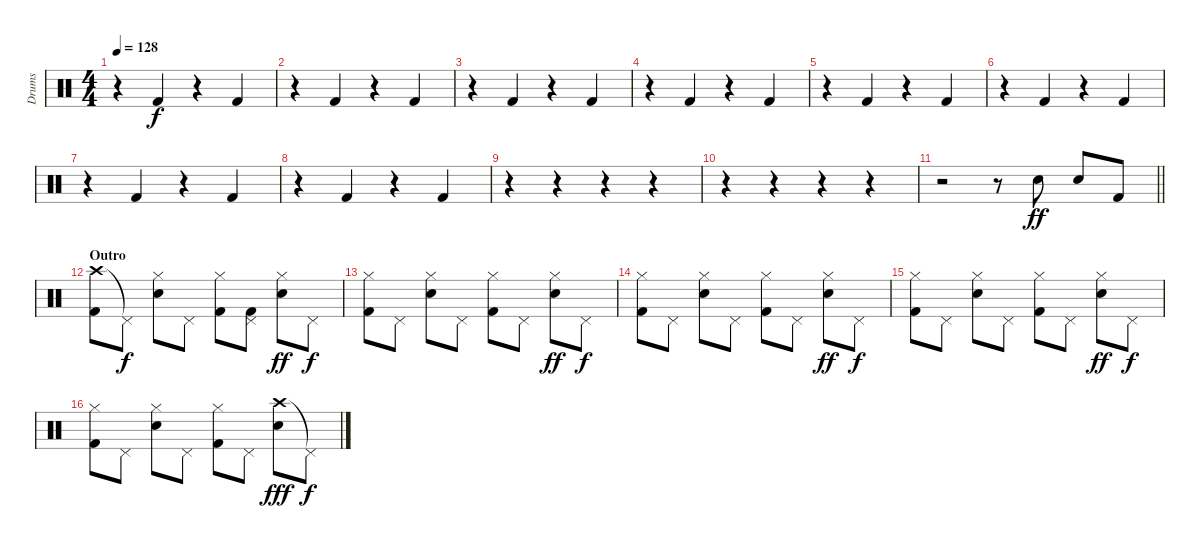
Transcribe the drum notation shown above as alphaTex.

\track ("Drums" "Drums") {instrument percussion}
\staff {score}
\articulation defaults
\ts (4 4)
\tempo 128
\clef neutral
\ks c
r.4{dy f} "Kick (hit) 2".4 r.4 "Kick (hit) 2".4 |
r.4 "Kick (hit) 2".4 r.4 "Kick (hit) 2".4 |
r.4 "Kick (hit) 2".4 r.4 "Kick (hit) 2".4 |
r.4 "Kick (hit) 2".4 r.4 "Kick (hit) 2".4 |
r.4 "Kick (hit) 2".4 r.4 "Kick (hit) 2".4 |
r.4 "Kick (hit) 2".4 r.4 "Kick (hit) 2".4 |
r.4 "Kick (hit) 2".4 r.4 "Kick (hit) 2".4 |
r.4 "Kick (hit) 2".4 r.4 "Kick (hit) 2".4 |
r.4 r.4 r.4 r.4 |
r.4 r.4 r.4 r.4 |
\barLineRight lightlight
r.2 r.8 "Snare (hit) 2".8{dy ff} "Snare (hit) 2".8 "Kick (hit) 2".8 |
\section ("" "Outro")
("Crash high (hit)" "Kick (hit) 2").8 "Pedal Hi-Hat (hit)"{t}.8{dy f} ("Hi-Hat (closed)" "Snare (hit) 2").8 "Pedal Hi-Hat (hit)".8 ("Hi-Hat (closed)" "Kick (hit) 2").8 ("Pedal Hi-Hat (hit)" "Kick (hit) 2").8 ("Hi-Hat (closed)" "Snare (hit) 2").8{dy ff} "Pedal Hi-Hat (hit)".8{dy f} |
("Hi-Hat (closed)" "Kick (hit) 2").8 "Pedal Hi-Hat (hit)".8 ("Hi-Hat (closed)" "Snare (hit) 2").8 "Pedal Hi-Hat (hit)".8 ("Hi-Hat (closed)" "Kick (hit) 2").8 "Pedal Hi-Hat (hit)".8 ("Hi-Hat (closed)" "Snare (hit) 2").8{dy ff} "Pedal Hi-Hat (hit)".8{dy f} |
("Hi-Hat (closed)" "Kick (hit) 2").8 "Pedal Hi-Hat (hit)".8 ("Hi-Hat (closed)" "Snare (hit) 2").8 "Pedal Hi-Hat (hit)".8 ("Hi-Hat (closed)" "Kick (hit) 2").8 "Pedal Hi-Hat (hit)".8 ("Hi-Hat (closed)" "Snare (hit) 2").8{dy ff} "Pedal Hi-Hat (hit)".8{dy f} |
("Hi-Hat (closed)" "Kick (hit) 2").8 "Pedal Hi-Hat (hit)".8 ("Hi-Hat (closed)" "Snare (hit) 2").8 "Pedal Hi-Hat (hit)".8 ("Hi-Hat (closed)" "Kick (hit) 2").8 "Pedal Hi-Hat (hit)".8 ("Hi-Hat (closed)" "Snare (hit) 2").8{dy ff} "Pedal Hi-Hat (hit)".8{dy f} |
("Hi-Hat (closed)" "Kick (hit) 2").8 "Pedal Hi-Hat (hit)".8 ("Hi-Hat (closed)" "Snare (hit) 2").8 "Pedal Hi-Hat (hit)".8 ("Hi-Hat (closed)" "Kick (hit) 2").8 "Pedal Hi-Hat (hit)".8 ("Crash high (hit)" "Snare (hit) 2").8{dy fff} "Pedal Hi-Hat (hit)"{t}.8{dy f}
